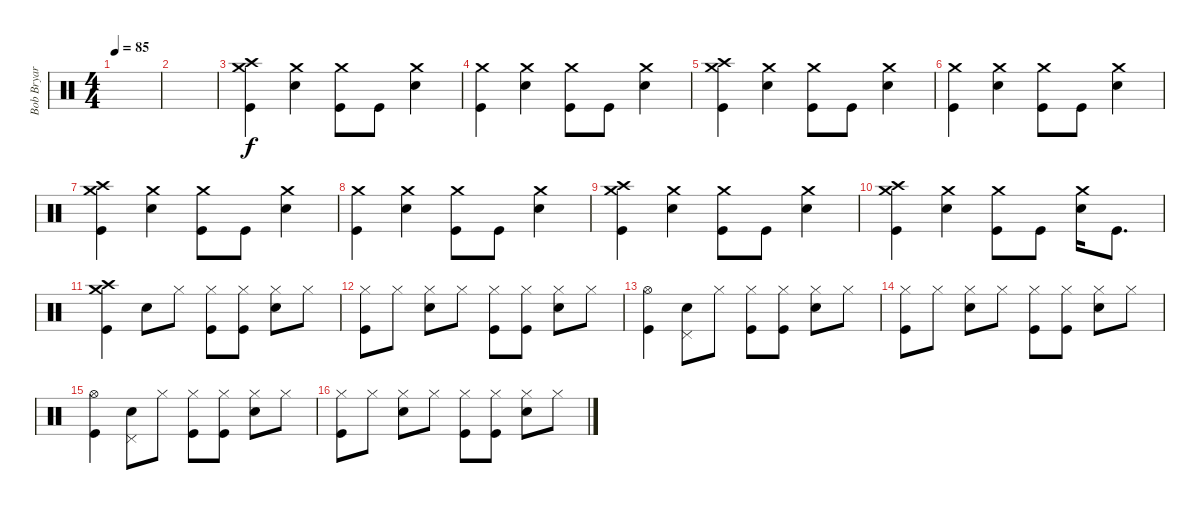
\track ("Bob Bryar (Drums)" "Bob Bryar ") {instrument percussion}
\staff {score}
\articulation defaults
\ts (4 4)
\tempo 85
\clef neutral
\ks c
|
|
("Crash high (hit)" "Crash medium (hit)" "Kick (hit)").4 ("Crash medium (hit)" "Electric Snare (hit)").4 ("Crash medium (hit)" "Kick (hit)").8 "Kick (hit)".8 ("Crash medium (hit)" "Electric Snare (hit)").4 |
("Crash medium (hit)" "Kick (hit)").4 ("Crash medium (hit)" "Electric Snare (hit)").4 ("Crash medium (hit)" "Kick (hit)").8 "Kick (hit)".8 ("Crash medium (hit)" "Electric Snare (hit)").4 |
("Crash high (hit)" "Crash medium (hit)" "Kick (hit)").4 ("Crash medium (hit)" "Electric Snare (hit)").4 ("Crash medium (hit)" "Kick (hit)").8 "Kick (hit)".8 ("Crash medium (hit)" "Electric Snare (hit)").4 |
("Crash medium (hit)" "Kick (hit)").4 ("Crash medium (hit)" "Electric Snare (hit)").4 ("Crash medium (hit)" "Kick (hit)").8 "Kick (hit)".8 ("Crash medium (hit)" "Electric Snare (hit)").4 |
("Crash high (hit)" "Crash medium (hit)" "Kick (hit)").4 ("Crash medium (hit)" "Electric Snare (hit)").4 ("Crash medium (hit)" "Kick (hit)").8 "Kick (hit)".8 ("Crash medium (hit)" "Electric Snare (hit)").4 |
("Crash medium (hit)" "Kick (hit)").4 ("Crash medium (hit)" "Electric Snare (hit)").4 ("Crash medium (hit)" "Kick (hit)").8 "Kick (hit)".8 ("Crash medium (hit)" "Electric Snare (hit)").4 |
("Crash high (hit)" "Crash medium (hit)" "Kick (hit)").4 ("Crash medium (hit)" "Electric Snare (hit)").4 ("Crash medium (hit)" "Kick (hit)").8 "Kick (hit)".8 ("Crash medium (hit)" "Electric Snare (hit)").4 |
("Crash high (hit)" "Crash medium (hit)" "Kick (hit)").4 ("Crash medium (hit)" "Electric Snare (hit)").4 ("Crash medium (hit)" "Kick (hit)").8 "Kick (hit)".8 ("Crash medium (hit)" "Electric Snare (hit)").16 "Kick (hit)".8{d} |
("Crash high (hit)" "Crash medium (hit)" "Kick (hit)").4 "Electric Snare (hit)".8 "Hi-Hat (closed)".8 ("Hi-Hat (closed)" "Kick (hit)").8 ("Hi-Hat (closed)" "Kick (hit)").8 ("Hi-Hat (closed)" "Electric Snare (hit)").8 "Hi-Hat (closed)".8 |
("Hi-Hat (closed)" "Kick (hit)").8 "Hi-Hat (closed)".8 ("Hi-Hat (closed)" "Electric Snare (hit)").8 "Hi-Hat (closed)".8 ("Hi-Hat (closed)" "Kick (hit)").8 ("Hi-Hat (closed)" "Kick (hit)").8 ("Hi-Hat (closed)" "Electric Snare (hit)").8 "Hi-Hat (closed)".8 |
("Hi-Hat (open)" "Kick (hit)").4 ("Pedal Hi-Hat (hit)" "Electric Snare (hit)").8 "Hi-Hat (closed)".8 ("Hi-Hat (closed)" "Kick (hit)").8 ("Hi-Hat (closed)" "Kick (hit)").8 ("Hi-Hat (closed)" "Electric Snare (hit)").8 "Hi-Hat (closed)".8 |
("Hi-Hat (closed)" "Kick (hit)").8 "Hi-Hat (closed)".8 ("Hi-Hat (closed)" "Electric Snare (hit)").8 "Hi-Hat (closed)".8 ("Hi-Hat (closed)" "Kick (hit)").8 ("Hi-Hat (closed)" "Kick (hit)").8 ("Hi-Hat (closed)" "Electric Snare (hit)").8 "Hi-Hat (closed)".8 |
("Hi-Hat (open)" "Kick (hit)").4 ("Pedal Hi-Hat (hit)" "Electric Snare (hit)").8 "Hi-Hat (closed)".8 ("Hi-Hat (closed)" "Kick (hit)").8 ("Hi-Hat (closed)" "Kick (hit)").8 ("Hi-Hat (closed)" "Electric Snare (hit)").8 "Hi-Hat (closed)".8 |
("Hi-Hat (closed)" "Kick (hit)").8 "Hi-Hat (closed)".8 ("Hi-Hat (closed)" "Electric Snare (hit)").8 "Hi-Hat (closed)".8 ("Hi-Hat (closed)" "Kick (hit)").8 ("Hi-Hat (closed)" "Kick (hit)").8 ("Hi-Hat (closed)" "Electric Snare (hit)").8 "Hi-Hat (closed)".8
